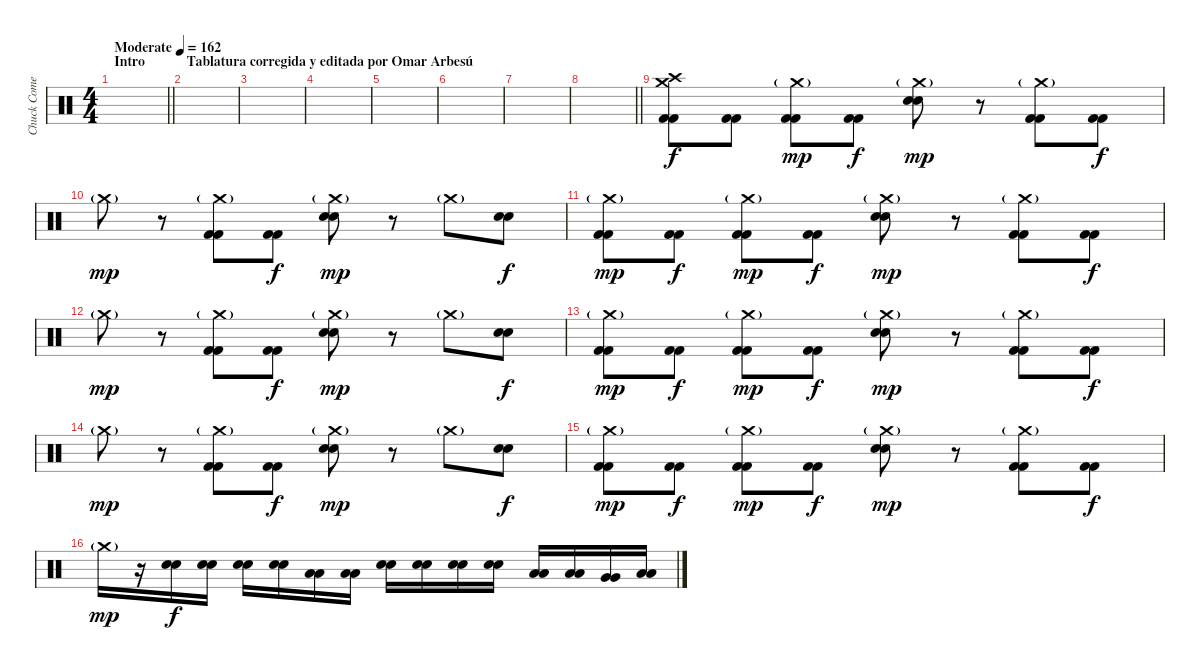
\track ("Chuck Comeau" "Chuck Come") {instrument percussion}
\staff {score}
\articulation defaults
\ts (4 4)
\section ("" "Intro")
\tempo (162 "Moderate")
\clef neutral
\barLineRight lightlight
\ks c
|
\section ("" "Tablatura corregida y editada por Omar Arbesú")
|
|
|
|
|
|
\barLineRight lightlight
|
("Crash medium (hit)" "Crash high (hit)" "Kick (hit) 2" "Kick (hit) 2").8 ("Kick (hit) 2" "Kick (hit) 2").8 ("Crash medium (hit)"{g} "Kick (hit) 2" "Kick (hit) 2").8{dy mp} ("Kick (hit) 2" "Kick (hit) 2").8{dy f} ("Crash medium (hit)"{g} "Snare (hit) 2" "Snare (hit) 2").8{dy mp} r.8 ("Crash medium (hit)"{g} "Kick (hit) 2" "Kick (hit) 2").8 ("Kick (hit) 2" "Kick (hit) 2").8{dy f} |
"Crash medium (hit)"{g}.8{dy mp} r.8 ("Crash medium (hit)"{g} "Kick (hit) 2" "Kick (hit) 2").8 ("Kick (hit) 2" "Kick (hit) 2").8{dy f} ("Crash medium (hit)"{g} "Snare (hit) 2" "Snare (hit) 2").8{dy mp} r.8 "Crash medium (hit)"{g}.8 ("Snare (hit) 2" "Snare (hit) 2").8{dy f} |
("Crash medium (hit)"{g} "Kick (hit) 2" "Kick (hit) 2").8{dy mp} ("Kick (hit) 2" "Kick (hit) 2").8{dy f} ("Crash medium (hit)"{g} "Kick (hit) 2" "Kick (hit) 2").8{dy mp} ("Kick (hit) 2" "Kick (hit) 2").8{dy f} ("Crash medium (hit)"{g} "Snare (hit) 2" "Snare (hit) 2").8{dy mp} r.8 ("Crash medium (hit)"{g} "Kick (hit) 2" "Kick (hit) 2").8 ("Kick (hit) 2" "Kick (hit) 2").8{dy f} |
"Crash medium (hit)"{g}.8{dy mp} r.8 ("Crash medium (hit)"{g} "Kick (hit) 2" "Kick (hit) 2").8 ("Kick (hit) 2" "Kick (hit) 2").8{dy f} ("Crash medium (hit)"{g} "Snare (hit) 2" "Snare (hit) 2").8{dy mp} r.8 "Crash medium (hit)"{g}.8 ("Snare (hit) 2" "Snare (hit) 2").8{dy f} |
("Crash medium (hit)"{g} "Kick (hit) 2" "Kick (hit) 2").8{dy mp} ("Kick (hit) 2" "Kick (hit) 2").8{dy f} ("Crash medium (hit)"{g} "Kick (hit) 2" "Kick (hit) 2").8{dy mp} ("Kick (hit) 2" "Kick (hit) 2").8{dy f} ("Crash medium (hit)"{g} "Snare (hit) 2" "Snare (hit) 2").8{dy mp} r.8 ("Crash medium (hit)"{g} "Kick (hit) 2" "Kick (hit) 2").8 ("Kick (hit) 2" "Kick (hit) 2").8{dy f} |
"Crash medium (hit)"{g}.8{dy mp} r.8 ("Crash medium (hit)"{g} "Kick (hit) 2" "Kick (hit) 2").8 ("Kick (hit) 2" "Kick (hit) 2").8{dy f} ("Crash medium (hit)"{g} "Snare (hit) 2" "Snare (hit) 2").8{dy mp} r.8 "Crash medium (hit)"{g}.8 ("Snare (hit) 2" "Snare (hit) 2").8{dy f} |
("Crash medium (hit)"{g} "Kick (hit) 2" "Kick (hit) 2").8{dy mp} ("Kick (hit) 2" "Kick (hit) 2").8{dy f} ("Crash medium (hit)"{g} "Kick (hit) 2" "Kick (hit) 2").8{dy mp} ("Kick (hit) 2" "Kick (hit) 2").8{dy f} ("Crash medium (hit)"{g} "Snare (hit) 2" "Snare (hit) 2").8{dy mp} r.8 ("Crash medium (hit)"{g} "Kick (hit) 2" "Kick (hit) 2").8 ("Kick (hit) 2" "Kick (hit) 2").8{dy f} |
"Crash medium (hit)"{g}.16{dy mp} r.16 ("Snare (hit) 2" "Snare (hit) 2").16{dy f} ("Snare (hit) 2" "Snare (hit) 2").16 ("Snare (hit) 2" "Snare (hit) 2").16 ("Snare (hit) 2" "Snare (hit) 2").16 ("Low Tom (hit)" "Low Tom (hit)").16 ("Low Tom (hit)" "Low Tom (hit)").16 ("Snare (hit) 2" "Snare (hit) 2").16 ("Snare (hit) 2" "Snare (hit) 2").16 ("Snare (hit) 2" "Snare (hit) 2").16 ("Snare (hit) 2" "Snare (hit) 2").16 ("Low Tom (hit)" "Low Tom (hit)").16 ("Low Tom (hit)" "Low Tom (hit)").16 ("Very Low Tom (hit)" "Very Low Tom (hit)").16 ("Low Floor Tom (hit)" "Low Floor Tom (hit)").16
